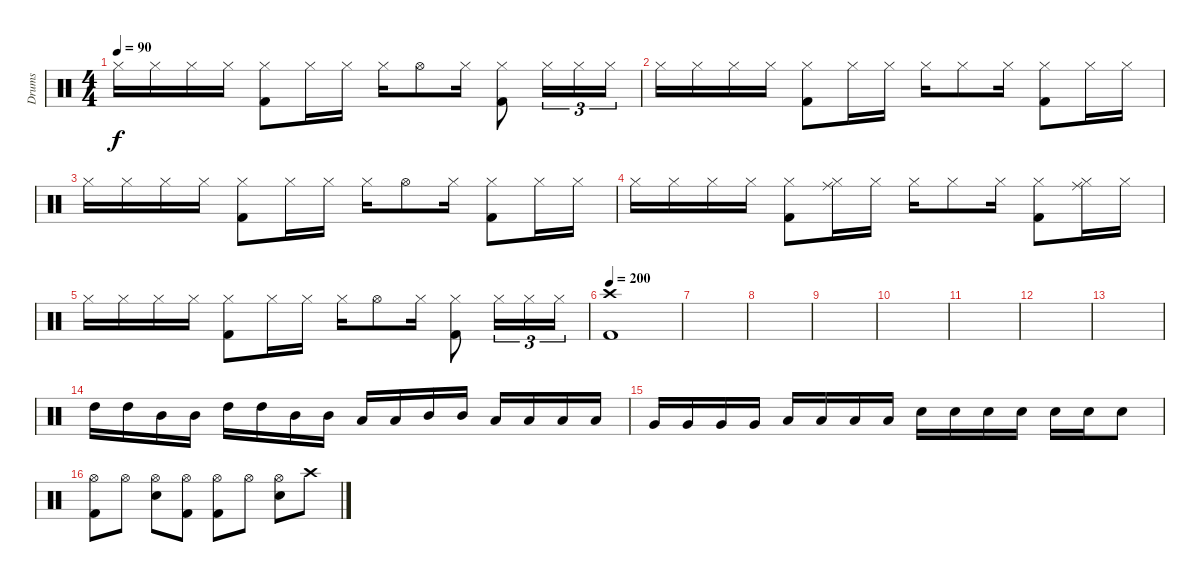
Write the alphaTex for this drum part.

\track ("Drums" "Drums") {instrument percussion}
\staff {score}
\articulation defaults
\ts (4 4)
\tempo 90
\clef neutral
\ks c "Hi-Hat (closed)".16{dy f} "Hi-Hat (closed)".16 "Hi-Hat (closed)".16 "Hi-Hat (closed)".16
("Hi-Hat (closed)" "Kick (hit) 2").8 "Hi-Hat (closed)".16 "Hi-Hat (closed)".16 "Hi-Hat (closed)".16 "Hi-Hat (open)".8 "Hi-Hat (closed)".16 ("Hi-Hat (closed)" "Kick (hit) 2").8 "Hi-Hat (closed)".16{tu (3 2)} "Hi-Hat (closed)".16{tu (3 2)} "Hi-Hat (closed)".16{tu (3 2)} |
"Hi-Hat (closed)".16 "Hi-Hat (closed)".16 "Hi-Hat (closed)".16 "Hi-Hat (closed)".16 ("Hi-Hat (closed)" "Kick (hit) 2").8 "Hi-Hat (closed)".16 "Hi-Hat (closed)".16 "Hi-Hat (closed)".16 "Hi-Hat (closed)".8 "Hi-Hat (closed)".16 ("Hi-Hat (closed)" "Kick (hit) 2").8 "Hi-Hat (closed)".16 "Hi-Hat (closed)".16 |
"Hi-Hat (closed)".16 "Hi-Hat (closed)".16 "Hi-Hat (closed)".16 "Hi-Hat (closed)".16 ("Hi-Hat (closed)" "Kick (hit) 2").8 "Hi-Hat (closed)".16 "Hi-Hat (closed)".16 "Hi-Hat (closed)".16 "Hi-Hat (open)".8 "Hi-Hat (closed)".16 ("Hi-Hat (closed)" "Kick (hit) 2").8 "Hi-Hat (closed)".16 "Hi-Hat (closed)".16 |
"Hi-Hat (closed)".16 "Hi-Hat (closed)".16 "Hi-Hat (closed)".16 "Hi-Hat (closed)".16 ("Hi-Hat (closed)" "Kick (hit) 2").8 ("Hi-Hat (closed)" "Ride (middle)").16 "Hi-Hat (closed)".16 "Hi-Hat (closed)".16 "Hi-Hat (closed)".8 "Hi-Hat (closed)".16 ("Hi-Hat (closed)" "Kick (hit) 2").8 ("Hi-Hat (closed)" "Ride (middle)").16 "Hi-Hat (closed)".16 |
"Hi-Hat (closed)".16 "Hi-Hat (closed)".16 "Hi-Hat (closed)".16 "Hi-Hat (closed)".16 ("Hi-Hat (closed)" "Kick (hit) 2").8 "Hi-Hat (closed)".16 "Hi-Hat (closed)".16 "Hi-Hat (closed)".16 "Hi-Hat (open)".8 "Hi-Hat (closed)".16 ("Hi-Hat (closed)" "Kick (hit) 2").8 "Hi-Hat (closed)".16{tu (3 2)} "Hi-Hat (closed)".16{tu (3 2)} "Hi-Hat (closed)".16{tu (3 2)} |
\tempo 200
("Crash high (hit)" "Kick (hit) 2").1 |
|
|
|
|
|
|
|
"High Tom (hit)".16 "High Tom (hit)".16 "Mid Tom (hit)".16 "Mid Tom (hit)".16 "High Tom (hit)".16 "High Tom (hit)".16 "Mid Tom (hit)".16 "Mid Tom (hit)".16 "Low Tom (hit)".16 "Low Tom (hit)".16 "Mid Tom (hit)".16 "Mid Tom (hit)".16 "Low Tom (hit)".16 "Low Tom (hit)".16 "Low Tom (hit)".16 "Low Tom (hit)".16 |
"Very Low Tom (hit)".16 "Very Low Tom (hit)".16 "Very Low Tom (hit)".16 "Very Low Tom (hit)".16 "Low Floor Tom (hit)".16 "Low Floor Tom (hit)".16 "Low Floor Tom (hit)".16 "Low Floor Tom (hit)".16 "Electric Snare (hit)".16 "Electric Snare (hit)".16 "Electric Snare (hit)".16 "Electric Snare (hit)".16 "Electric Snare (hit)".16 "Electric Snare (hit)".16 "Electric Snare (hit)".8 |
("Hi-Hat (open)" "Kick (hit) 2").8 "Hi-Hat (open)".8 ("Hi-Hat (open)" "Electric Snare (hit)").8 ("Hi-Hat (open)" "Kick (hit) 2").8 ("Hi-Hat (open)" "Kick (hit) 2").8 "Hi-Hat (open)".8 ("Hi-Hat (open)" "Electric Snare (hit)").8 "Crash high (hit)".8
